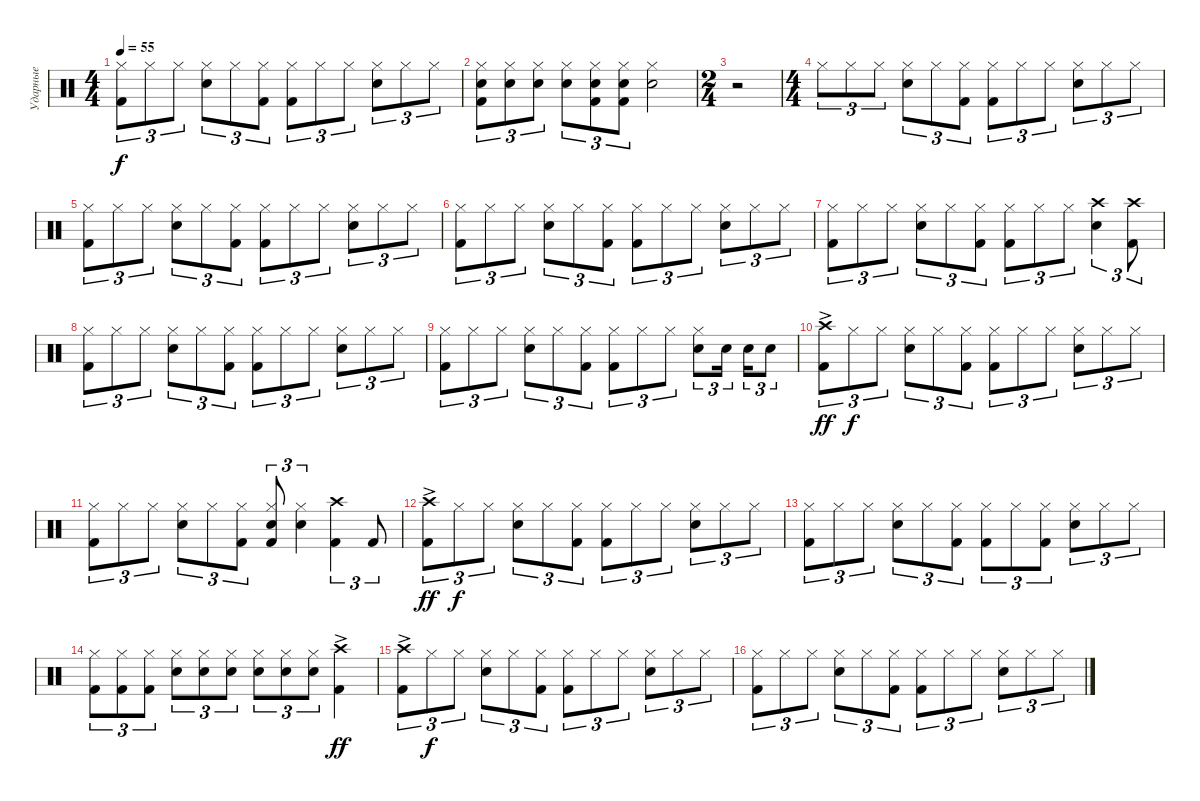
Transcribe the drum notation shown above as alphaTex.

\track ("Ударные" "Ударные") {instrument percussion}
\staff
\articulation defaults
\ts (4 4)
\tempo 55
\clef neutral
\ks c
("Kick (hit) 2" "Hi-Hat (closed)").8{tu (3 2) dy f} "Hi-Hat (closed)".8{tu (3 2)} "Hi-Hat (closed)".8{tu (3 2)} ("Snare (hit) 2" "Hi-Hat (closed)").8{tu (3 2)} "Hi-Hat (closed)".8{tu (3 2)} ("Kick (hit) 2" "Hi-Hat (closed)").8{tu (3 2)} ("Kick (hit) 2" "Hi-Hat (closed)").8{tu (3 2)} "Hi-Hat (closed)".8{tu (3 2)} "Hi-Hat (closed)".8{tu (3 2)} ("Snare (hit) 2" "Hi-Hat (closed)").8{tu (3 2)} "Hi-Hat (closed)".8{tu (3 2)} "Hi-Hat (closed)".8{tu (3 2)} |
("Kick (hit) 2" "Snare (hit) 2" "Hi-Hat (closed)").8{tu (3 2)} ("Snare (hit) 2" "Hi-Hat (closed)").8{tu (3 2)} ("Snare (hit) 2" "Hi-Hat (closed)").8{tu (3 2)} ("Snare (hit) 2" "Hi-Hat (closed)").8{tu (3 2)} ("Kick (hit) 2" "Snare (hit) 2" "Hi-Hat (closed)").8{tu (3 2)} ("Kick (hit) 2" "Snare (hit) 2" "Hi-Hat (closed)").8{tu (3 2)} ("Snare (hit) 2" "Hi-Hat (closed)").2 |
\ts (2 4)
r.2 |
\ts (4 4)
"Hi-Hat (closed)".8{tu (3 2)} "Hi-Hat (closed)".8{tu (3 2)} "Hi-Hat (closed)".8{tu (3 2)} ("Snare (hit) 2" "Hi-Hat (closed)").8{tu (3 2)} "Hi-Hat (closed)".8{tu (3 2)} ("Kick (hit) 2" "Hi-Hat (closed)").8{tu (3 2)} ("Kick (hit) 2" "Hi-Hat (closed)").8{tu (3 2)} "Hi-Hat (closed)".8{tu (3 2)} "Hi-Hat (closed)".8{tu (3 2)} ("Snare (hit) 2" "Hi-Hat (closed)").8{tu (3 2)} "Hi-Hat (closed)".8{tu (3 2)} "Hi-Hat (closed)".8{tu (3 2)} |
("Kick (hit) 2" "Hi-Hat (closed)").8{tu (3 2)} "Hi-Hat (closed)".8{tu (3 2)} "Hi-Hat (closed)".8{tu (3 2)} ("Snare (hit) 2" "Hi-Hat (closed)").8{tu (3 2)} "Hi-Hat (closed)".8{tu (3 2)} ("Kick (hit) 2" "Hi-Hat (closed)").8{tu (3 2)} ("Kick (hit) 2" "Hi-Hat (closed)").8{tu (3 2)} "Hi-Hat (closed)".8{tu (3 2)} "Hi-Hat (closed)".8{tu (3 2)} ("Snare (hit) 2" "Hi-Hat (closed)").8{tu (3 2)} "Hi-Hat (closed)".8{tu (3 2)} "Hi-Hat (closed)".8{tu (3 2)} |
("Kick (hit) 2" "Hi-Hat (closed)").8{tu (3 2)} "Hi-Hat (closed)".8{tu (3 2)} "Hi-Hat (closed)".8{tu (3 2)} ("Snare (hit) 2" "Hi-Hat (closed)").8{tu (3 2)} "Hi-Hat (closed)".8{tu (3 2)} ("Kick (hit) 2" "Hi-Hat (closed)").8{tu (3 2)} ("Kick (hit) 2" "Hi-Hat (closed)").8{tu (3 2)} "Hi-Hat (closed)".8{tu (3 2)} "Hi-Hat (closed)".8{tu (3 2)} ("Snare (hit) 2" "Hi-Hat (closed)").8{tu (3 2)} "Hi-Hat (closed)".8{tu (3 2)} "Hi-Hat (closed)".8{tu (3 2)} |
("Kick (hit) 2" "Hi-Hat (closed)").8{tu (3 2)} "Hi-Hat (closed)".8{tu (3 2)} "Hi-Hat (closed)".8{tu (3 2)} ("Snare (hit) 2" "Hi-Hat (closed)").8{tu (3 2)} "Hi-Hat (closed)".8{tu (3 2)} ("Kick (hit) 2" "Hi-Hat (closed)").8{tu (3 2)} ("Kick (hit) 2" "Hi-Hat (closed)").8{tu (3 2)} "Hi-Hat (closed)".8{tu (3 2)} "Hi-Hat (closed)".8{tu (3 2)} ("Snare (hit) 2" "Crash high (hit)").4{tu (3 2)} ("Kick (hit) 2" "Crash high (hit)").8{tu (3 2)} |
("Kick (hit) 2" "Hi-Hat (closed)").8{tu (3 2)} "Hi-Hat (closed)".8{tu (3 2)} "Hi-Hat (closed)".8{tu (3 2)} ("Snare (hit) 2" "Hi-Hat (closed)").8{tu (3 2)} "Hi-Hat (closed)".8{tu (3 2)} ("Kick (hit) 2" "Hi-Hat (closed)").8{tu (3 2)} ("Kick (hit) 2" "Hi-Hat (closed)").8{tu (3 2)} "Hi-Hat (closed)".8{tu (3 2)} "Hi-Hat (closed)".8{tu (3 2)} ("Snare (hit) 2" "Hi-Hat (closed)").8{tu (3 2)} "Hi-Hat (closed)".8{tu (3 2)} "Hi-Hat (closed)".8{tu (3 2)} |
("Kick (hit) 2" "Hi-Hat (closed)").8{tu (3 2)} "Hi-Hat (closed)".8{tu (3 2)} "Hi-Hat (closed)".8{tu (3 2)} ("Snare (hit) 2" "Hi-Hat (closed)").8{tu (3 2)} "Hi-Hat (closed)".8{tu (3 2)} ("Kick (hit) 2" "Hi-Hat (closed)").8{tu (3 2)} ("Kick (hit) 2" "Hi-Hat (closed)").8{tu (3 2)} "Hi-Hat (closed)".8{tu (3 2)} "Hi-Hat (closed)".8{tu (3 2)} ("Snare (hit) 2" "Hi-Hat (closed)").8{tu (3 2)} "Snare (hit) 2".16{tu (3 2) beam splitsecondary} "Snare (hit) 2".16{tu (3 2)} "Snare (hit) 2".8{tu (3 2)} |
("Kick (hit) 2" "Crash high (hit)"{ac}).8{tu (3 2) dy ff} "Hi-Hat (closed)".8{tu (3 2) dy f} "Hi-Hat (closed)".8{tu (3 2)} ("Snare (hit) 2" "Hi-Hat (closed)").8{tu (3 2)} "Hi-Hat (closed)".8{tu (3 2)} ("Kick (hit) 2" "Hi-Hat (closed)").8{tu (3 2)} ("Kick (hit) 2" "Hi-Hat (closed)").8{tu (3 2)} "Hi-Hat (closed)".8{tu (3 2)} "Hi-Hat (closed)".8{tu (3 2)} ("Snare (hit) 2" "Hi-Hat (closed)").8{tu (3 2)} "Hi-Hat (closed)".8{tu (3 2)} "Hi-Hat (closed)".8{tu (3 2)} |
("Kick (hit) 2" "Hi-Hat (closed)").8{tu (3 2)} "Hi-Hat (closed)".8{tu (3 2)} "Hi-Hat (closed)".8{tu (3 2)} ("Snare (hit) 2" "Hi-Hat (closed)").8{tu (3 2)} "Hi-Hat (closed)".8{tu (3 2)} ("Kick (hit) 2" "Hi-Hat (closed)").8{tu (3 2)} ("Kick (hit) 2" "Snare (hit) 2" "Hi-Hat (closed)").8{tu (3 2)} ("Snare (hit) 2" "Hi-Hat (closed)").4{tu (3 2)} ("Kick (hit) 2" "Crash high (hit)").4{tu (3 2)} "Kick (hit) 2".8{tu (3 2)} |
("Kick (hit) 2" "Crash high (hit)"{ac}).8{tu (3 2) dy ff} "Hi-Hat (closed)".8{tu (3 2) dy f} "Hi-Hat (closed)".8{tu (3 2)} ("Snare (hit) 2" "Hi-Hat (closed)").8{tu (3 2)} "Hi-Hat (closed)".8{tu (3 2)} ("Kick (hit) 2" "Hi-Hat (closed)").8{tu (3 2)} ("Kick (hit) 2" "Hi-Hat (closed)").8{tu (3 2)} "Hi-Hat (closed)".8{tu (3 2)} "Hi-Hat (closed)".8{tu (3 2)} ("Snare (hit) 2" "Hi-Hat (closed)").8{tu (3 2)} "Hi-Hat (closed)".8{tu (3 2)} "Hi-Hat (closed)".8{tu (3 2)} |
("Kick (hit) 2" "Hi-Hat (closed)").8{tu (3 2)} "Hi-Hat (closed)".8{tu (3 2)} "Hi-Hat (closed)".8{tu (3 2)} ("Snare (hit) 2" "Hi-Hat (closed)").8{tu (3 2)} "Hi-Hat (closed)".8{tu (3 2)} ("Kick (hit) 2" "Hi-Hat (closed)").8{tu (3 2)} ("Kick (hit) 2" "Hi-Hat (closed)").8{tu (3 2)} "Hi-Hat (closed)".8{tu (3 2)} ("Kick (hit) 2" "Hi-Hat (closed)").8{tu (3 2)} ("Snare (hit) 2" "Hi-Hat (closed)").8{tu (3 2)} "Hi-Hat (closed)".8{tu (3 2)} "Hi-Hat (closed)".8{tu (3 2)} |
("Kick (hit) 2" "Hi-Hat (closed)").8{tu (3 2)} ("Kick (hit) 2" "Hi-Hat (closed)").8{tu (3 2)} ("Kick (hit) 2" "Hi-Hat (closed)").8{tu (3 2)} ("Snare (hit) 2" "Hi-Hat (closed)").8{tu (3 2)} ("Snare (hit) 2" "Hi-Hat (closed)").8{tu (3 2)} ("Snare (hit) 2" "Hi-Hat (closed)").8{tu (3 2)} ("Snare (hit) 2" "Hi-Hat (closed)").8{tu (3 2)} ("Snare (hit) 2" "Hi-Hat (closed)").8{tu (3 2)} ("Snare (hit) 2" "Hi-Hat (closed)").8{tu (3 2)} ("Kick (hit) 2" "Crash high (hit)"{ac}).4{dy ff} |
("Kick (hit) 2" "Crash high (hit)"{ac}).8{tu (3 2)} "Hi-Hat (closed)".8{tu (3 2) dy f} "Hi-Hat (closed)".8{tu (3 2)} ("Snare (hit) 2" "Hi-Hat (closed)").8{tu (3 2)} "Hi-Hat (closed)".8{tu (3 2)} ("Kick (hit) 2" "Hi-Hat (closed)").8{tu (3 2)} ("Kick (hit) 2" "Hi-Hat (closed)").8{tu (3 2)} "Hi-Hat (closed)".8{tu (3 2)} "Hi-Hat (closed)".8{tu (3 2)} ("Snare (hit) 2" "Hi-Hat (closed)").8{tu (3 2)} "Hi-Hat (closed)".8{tu (3 2)} "Hi-Hat (closed)".8{tu (3 2)} |
("Kick (hit) 2" "Hi-Hat (closed)").8{tu (3 2)} "Hi-Hat (closed)".8{tu (3 2)} "Hi-Hat (closed)".8{tu (3 2)} ("Snare (hit) 2" "Hi-Hat (closed)").8{tu (3 2)} "Hi-Hat (closed)".8{tu (3 2)} ("Kick (hit) 2" "Hi-Hat (closed)").8{tu (3 2)} ("Kick (hit) 2" "Hi-Hat (closed)").8{tu (3 2)} "Hi-Hat (closed)".8{tu (3 2)} "Hi-Hat (closed)".8{tu (3 2)} ("Snare (hit) 2" "Hi-Hat (closed)").8{tu (3 2)} "Hi-Hat (closed)".8{tu (3 2)} "Hi-Hat (closed)".8{tu (3 2)}
